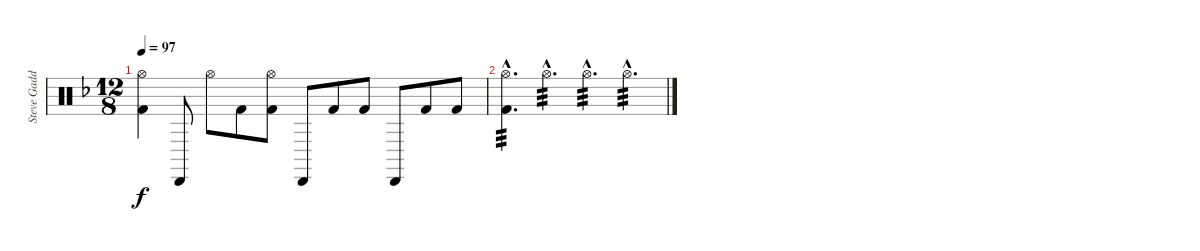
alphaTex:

\track ("Steve Gadd Drums" "Steve Gadd") {instrument percussion}
\staff {score}
\articulation defaults
\ts (12 8)
\tempo 97
\clef neutral
\ks f
("Hi-Hat (open)" "Kick (hit) 2").4{dy f} "Cabasa (hit)".8 "Hi-Hat (open)".8 "Kick (hit) 2".8 ("Hi-Hat (open)" "Kick (hit) 2").8 "Cabasa (hit)".8 "Kick (hit) 2".8 "Kick (hit) 2".8 "Cabasa (hit)".8 "Kick (hit) 2".8 "Kick (hit) 2".8 |
("Hi-Hat (open)"{hac} "Kick (hit) 2"{hac}).4{d tp 3} "Hi-Hat (open)"{hac}.4{d tp 3} "Hi-Hat (open)"{hac}.4{d tp 3} "Hi-Hat (open)"{hac}.4{d tp 3}
